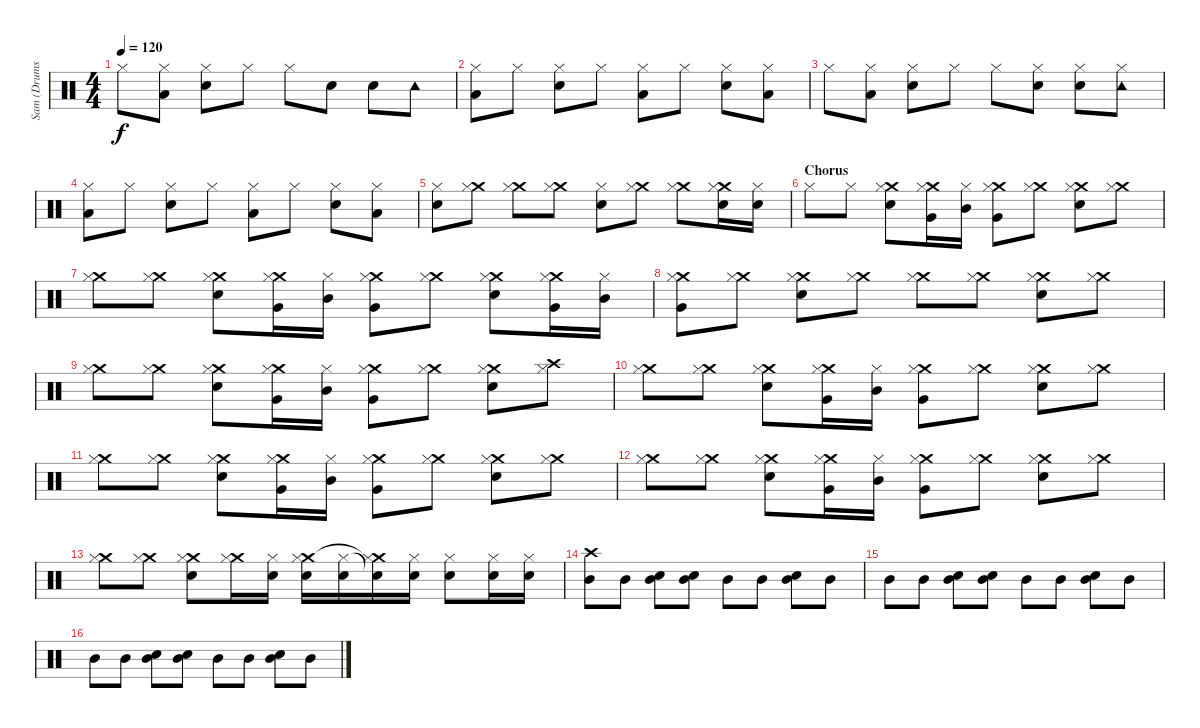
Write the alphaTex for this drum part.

\track ("Sam (Drums)" "Sam (Drums") {instrument percussion}
\staff {score}
\articulation defaults
\ts (4 4)
\tempo 120
\clef neutral
\ks c "Hi-Hat (closed)".8{dy f}
("Low Tom (hit)" "Hi-Hat (closed)").8 ("Snare (hit) 2" "Hi-Hat (closed)").8 "Hi-Hat (closed)".8 "Hi-Hat (closed)".8 "Electric Snare (hit)".8 "Snare (hit) 2".8 "Tambourine (hit)".8 |
\section ("" "")
("Low Tom (hit)" "Hi-Hat (closed)").8 "Hi-Hat (closed)".8 ("Snare (hit) 2" "Hi-Hat (closed)").8 "Hi-Hat (closed)".8 ("Low Tom (hit)" "Hi-Hat (closed)").8 "Hi-Hat (closed)".8 ("Snare (hit) 2" "Hi-Hat (closed)").8 ("Low Tom (hit)" "Hi-Hat (closed)").8 |
"Hi-Hat (closed)".8 ("Low Tom (hit)" "Hi-Hat (closed)").8 ("Snare (hit) 2" "Hi-Hat (closed)").8 "Hi-Hat (closed)".8 "Hi-Hat (closed)".8 ("Snare (hit) 2" "Hi-Hat (closed)").8 ("Snare (hit) 2" "Hi-Hat (closed)").8 ("Tambourine (hit)" "Hi-Hat (closed)").8 |
("Low Tom (hit)" "Hi-Hat (closed)").8 "Hi-Hat (closed)".8 ("Snare (hit) 2" "Hi-Hat (closed)").8 "Hi-Hat (closed)".8 ("Low Tom (hit)" "Hi-Hat (closed)").8 "Hi-Hat (closed)".8 ("Snare (hit) 2" "Hi-Hat (closed)").8 ("Low Tom (hit)" "Hi-Hat (closed)").8 |
("Snare (hit) 2" "Hi-Hat (closed)").8 ("Crash medium (hit)" "Hi-Hat (closed)").8 ("Crash medium (hit)" "Hi-Hat (closed)").8 ("Crash medium (hit)" "Hi-Hat (closed)").8 ("Snare (hit) 2" "Hi-Hat (closed)").8 ("Crash medium (hit)" "Hi-Hat (closed)").8 ("Crash medium (hit)" "Hi-Hat (closed)").8 ("Crash medium (hit)" "Snare (hit) 2" "Hi-Hat (closed)").16 ("Snare (hit) 2" "Hi-Hat (closed)").16 |
\section ("" "Chorus")
"Hi-Hat (closed)".8 "Hi-Hat (closed)".8 ("Crash medium (hit)" "Snare (hit) 2" "Hi-Hat (closed)").8 ("Crash medium (hit)" "Very Low Tom (hit)" "Hi-Hat (closed)").16 ("Mid Tom (hit)" "Hi-Hat (closed)").16 ("Crash medium (hit)" "Very Low Tom (hit)" "Hi-Hat (closed)").8 ("Crash medium (hit)" "Hi-Hat (closed)").8 ("Crash medium (hit)" "Snare (hit) 2" "Hi-Hat (closed)").8 ("Crash medium (hit)" "Hi-Hat (closed)").8 |
("Crash medium (hit)" "Hi-Hat (closed)").8 ("Crash medium (hit)" "Hi-Hat (closed)").8 ("Crash medium (hit)" "Snare (hit) 2" "Hi-Hat (closed)").8 ("Crash medium (hit)" "Very Low Tom (hit)" "Hi-Hat (closed)").16 ("Mid Tom (hit)" "Hi-Hat (closed)").16 ("Crash medium (hit)" "Very Low Tom (hit)" "Hi-Hat (closed)").8 ("Crash medium (hit)" "Hi-Hat (closed)").8 ("Crash medium (hit)" "Snare (hit) 2" "Hi-Hat (closed)").8 ("Crash medium (hit)" "Very Low Tom (hit)" "Hi-Hat (closed)").16 ("Mid Tom (hit)" "Hi-Hat (closed)").16 |
("Crash medium (hit)" "Very Low Tom (hit)" "Hi-Hat (closed)").8 ("Crash medium (hit)" "Hi-Hat (closed)").8 ("Crash medium (hit)" "Snare (hit) 2" "Hi-Hat (closed)").8 ("Crash medium (hit)" "Hi-Hat (closed)").8 ("Crash medium (hit)" "Hi-Hat (closed)").8 ("Crash medium (hit)" "Hi-Hat (closed)").8 ("Crash medium (hit)" "Snare (hit) 2" "Hi-Hat (closed)").8 ("Crash medium (hit)" "Hi-Hat (closed)").8 |
("Crash medium (hit)" "Hi-Hat (closed)").8 ("Crash medium (hit)" "Hi-Hat (closed)").8 ("Crash medium (hit)" "Snare (hit) 2" "Hi-Hat (closed)").8 ("Crash medium (hit)" "Very Low Tom (hit)" "Hi-Hat (closed)").16 ("Mid Tom (hit)" "Hi-Hat (closed)").16 ("Crash medium (hit)" "Very Low Tom (hit)" "Hi-Hat (closed)").8 ("Crash medium (hit)" "Hi-Hat (closed)").8 ("Crash medium (hit)" "Snare (hit) 2" "Hi-Hat (closed)").8 ("Crash high (hit)" "Hi-Hat (closed)").8 |
("Crash medium (hit)" "Hi-Hat (closed)").8 ("Crash medium (hit)" "Hi-Hat (closed)").8 ("Crash medium (hit)" "Snare (hit) 2" "Hi-Hat (closed)").8 ("Crash medium (hit)" "Very Low Tom (hit)" "Hi-Hat (closed)").16 ("Mid Tom (hit)" "Hi-Hat (closed)").16 ("Crash medium (hit)" "Very Low Tom (hit)" "Hi-Hat (closed)").8 ("Crash medium (hit)" "Hi-Hat (closed)").8 ("Crash medium (hit)" "Snare (hit) 2" "Hi-Hat (closed)").8 ("Crash medium (hit)" "Hi-Hat (closed)").8 |
("Crash medium (hit)" "Hi-Hat (closed)").8 ("Crash medium (hit)" "Hi-Hat (closed)").8 ("Crash medium (hit)" "Snare (hit) 2" "Hi-Hat (closed)").8 ("Crash medium (hit)" "Very Low Tom (hit)" "Hi-Hat (closed)").16 ("Mid Tom (hit)" "Hi-Hat (closed)").16 ("Crash medium (hit)" "Very Low Tom (hit)" "Hi-Hat (closed)").8 ("Crash medium (hit)" "Hi-Hat (closed)").8 ("Crash medium (hit)" "Snare (hit) 2" "Hi-Hat (closed)").8 ("Crash medium (hit)" "Hi-Hat (closed)").8 |
("Crash medium (hit)" "Hi-Hat (closed)").8 ("Crash medium (hit)" "Hi-Hat (closed)").8 ("Crash medium (hit)" "Snare (hit) 2" "Hi-Hat (closed)").8 ("Crash medium (hit)" "Very Low Tom (hit)" "Hi-Hat (closed)").16 ("Mid Tom (hit)" "Hi-Hat (closed)").16 ("Crash medium (hit)" "Very Low Tom (hit)" "Hi-Hat (closed)").8 ("Crash medium (hit)" "Hi-Hat (closed)").8 ("Crash medium (hit)" "Snare (hit) 2" "Hi-Hat (closed)").8 ("Crash medium (hit)" "Hi-Hat (closed)").8 |
("Crash medium (hit)" "Hi-Hat (closed)").8 ("Crash medium (hit)" "Hi-Hat (closed)").8 ("Crash medium (hit)" "Snare (hit) 2" "Hi-Hat (closed)").8 ("Crash medium (hit)" "Hi-Hat (closed)").16 ("Snare (hit) 2" "Hi-Hat (closed)").16 ("Crash medium (hit)" "Snare (hit) 2" "Hi-Hat (closed)").16 ("Snare (hit) 2" "Hi-Hat (closed)").16 ("Crash medium (hit)" "Snare (hit) 2"{t} "Hi-Hat (closed)"{t}).16 ("Snare (hit) 2" "Hi-Hat (closed)").16 ("Snare (hit) 2" "Hi-Hat (closed)").8 ("Snare (hit) 2" "Hi-Hat (closed)").16 ("Snare (hit) 2" "Hi-Hat (closed)").16 |
\section ("" "")
("Crash high (hit)" "Mid Tom (hit)").8 "Mid Tom (hit)".8 ("Snare (hit) 2" "Mid Tom (hit)").8 ("Snare (hit) 2" "Mid Tom (hit)").8 "Mid Tom (hit)".8 "Mid Tom (hit)".8 ("Snare (hit) 2" "Mid Tom (hit)").8 "Mid Tom (hit)".8 |
"Mid Tom (hit)".8 "Mid Tom (hit)".8 ("Snare (hit) 2" "Mid Tom (hit)").8 ("Snare (hit) 2" "Mid Tom (hit)").8 "Mid Tom (hit)".8 "Mid Tom (hit)".8 ("Snare (hit) 2" "Mid Tom (hit)").8 "Mid Tom (hit)".8 |
"Mid Tom (hit)".8 "Mid Tom (hit)".8 ("Snare (hit) 2" "Mid Tom (hit)").8 ("Snare (hit) 2" "Mid Tom (hit)").8 "Mid Tom (hit)".8 "Mid Tom (hit)".8 ("Snare (hit) 2" "Mid Tom (hit)").8 "Mid Tom (hit)".8
